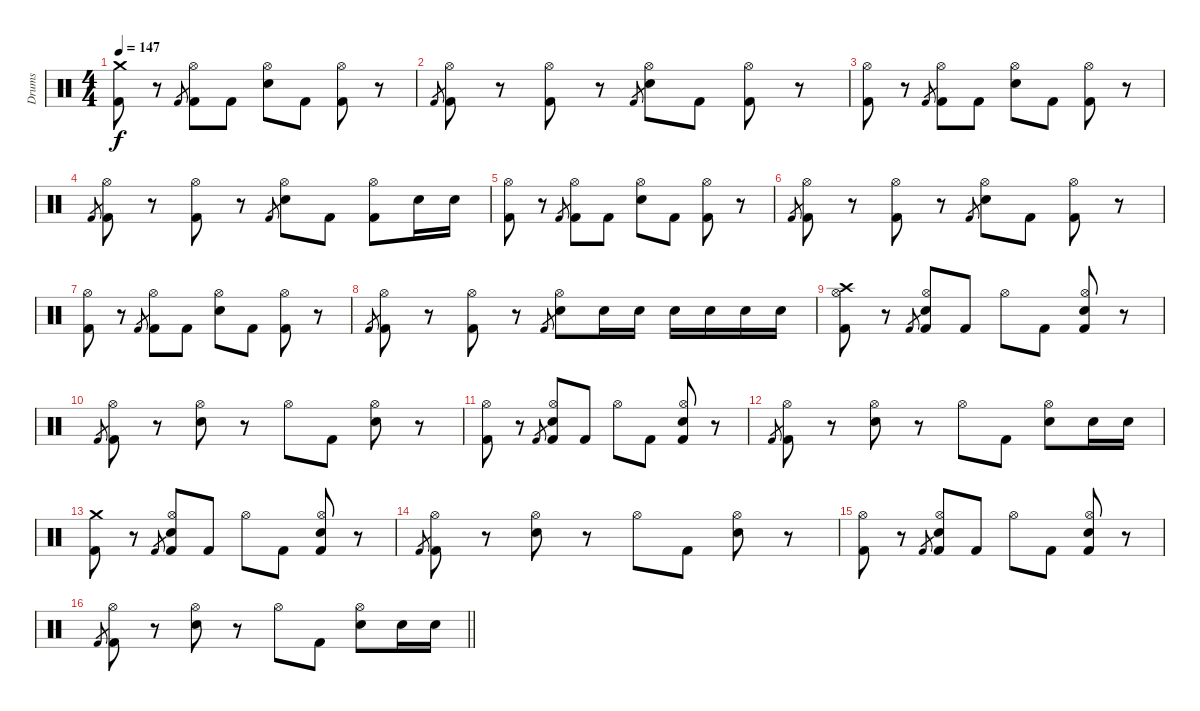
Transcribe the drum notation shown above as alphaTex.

\track ("Drums" "Drums") {instrument percussion}
\staff {score}
\articulation defaults
\ts (4 4)
\tempo 147
\clef neutral
\ks c
("Crash medium (hit)" "Kick (hit) 2").8{dy f} r.8 "Kick (hit) 2".8{gr} ("Hi-Hat (open)" "Kick (hit) 2").8 "Kick (hit) 2".8 ("Hi-Hat (open)" "Electric Snare (hit)").8 "Kick (hit) 2".8 ("Hi-Hat (open)" "Kick (hit) 2").8 r.8 |
"Kick (hit) 2".8{gr} ("Hi-Hat (open)" "Kick (hit) 2").8 r.8 ("Hi-Hat (open)" "Kick (hit) 2").8 r.8 "Kick (hit) 2".8{gr} ("Hi-Hat (open)" "Electric Snare (hit)").8 "Kick (hit) 2".8 ("Hi-Hat (open)" "Kick (hit) 2").8 r.8 |
("Hi-Hat (open)" "Kick (hit) 2").8 r.8 "Kick (hit) 2".8{gr} ("Hi-Hat (open)" "Kick (hit) 2").8 "Kick (hit) 2".8 ("Hi-Hat (open)" "Electric Snare (hit)").8 "Kick (hit) 2".8 ("Hi-Hat (open)" "Kick (hit) 2").8 r.8 |
"Kick (hit) 2".8{gr} ("Hi-Hat (open)" "Kick (hit) 2").8 r.8 ("Hi-Hat (open)" "Kick (hit) 2").8 r.8 "Kick (hit) 2".8{gr} ("Hi-Hat (open)" "Electric Snare (hit)").8 "Kick (hit) 2".8 ("Hi-Hat (open)" "Kick (hit) 2").8 "Electric Snare (hit)".16 "Electric Snare (hit)".16 |
("Hi-Hat (open)" "Kick (hit) 2").8 r.8 "Kick (hit) 2".8{gr} ("Hi-Hat (open)" "Kick (hit) 2").8 "Kick (hit) 2".8 ("Hi-Hat (open)" "Electric Snare (hit)").8 "Kick (hit) 2".8 ("Hi-Hat (open)" "Kick (hit) 2").8 r.8 |
"Kick (hit) 2".8{gr} ("Hi-Hat (open)" "Kick (hit) 2").8 r.8 ("Hi-Hat (open)" "Kick (hit) 2").8 r.8 "Kick (hit) 2".8{gr} ("Hi-Hat (open)" "Electric Snare (hit)").8 "Kick (hit) 2".8 ("Hi-Hat (open)" "Kick (hit) 2").8 r.8 |
("Hi-Hat (open)" "Kick (hit) 2").8 r.8 "Kick (hit) 2".8{gr} ("Hi-Hat (open)" "Kick (hit) 2").8 "Kick (hit) 2".8 ("Hi-Hat (open)" "Electric Snare (hit)").8 "Kick (hit) 2".8 ("Hi-Hat (open)" "Kick (hit) 2").8 r.8 |
"Kick (hit) 2".8{gr} ("Hi-Hat (open)" "Kick (hit) 2").8 r.8 ("Hi-Hat (open)" "Kick (hit) 2").8 r.8 "Kick (hit) 2".8{gr} ("Hi-Hat (open)" "Electric Snare (hit)").8 "Electric Snare (hit)".16 "Electric Snare (hit)".16 "Electric Snare (hit)".16 "Electric Snare (hit)".16 "Electric Snare (hit)".16 "Electric Snare (hit)".16 |
("Crash high (hit)" "Hi-Hat (open)" "Kick (hit) 2").8 r.8 "Kick (hit) 2".8{gr} ("Hi-Hat (open)" "Electric Snare (hit)" "Kick (hit) 2").8 "Kick (hit) 2".8 "Hi-Hat (open)".8 "Kick (hit) 2".8 ("Hi-Hat (open)" "Electric Snare (hit)" "Kick (hit) 2").8 r.8 |
"Kick (hit) 2".8{gr} ("Hi-Hat (open)" "Kick (hit) 2").8 r.8 ("Hi-Hat (open)" "Electric Snare (hit)").8 r.8 "Hi-Hat (open)".8 "Kick (hit) 2".8 ("Hi-Hat (open)" "Electric Snare (hit)").8 r.8 |
("Hi-Hat (open)" "Kick (hit) 2").8 r.8 "Kick (hit) 2".8{gr} ("Hi-Hat (open)" "Electric Snare (hit)" "Kick (hit) 2").8 "Kick (hit) 2".8 "Hi-Hat (open)".8 "Kick (hit) 2".8 ("Hi-Hat (open)" "Electric Snare (hit)" "Kick (hit) 2").8 r.8 |
"Kick (hit) 2".8{gr} ("Hi-Hat (open)" "Kick (hit) 2").8 r.8 ("Hi-Hat (open)" "Electric Snare (hit)").8 r.8 "Hi-Hat (open)".8 "Kick (hit) 2".8 ("Hi-Hat (open)" "Electric Snare (hit)").8 "Electric Snare (hit)".16 "Electric Snare (hit)".16 |
("Crash medium (hit)" "Kick (hit) 2").8 r.8 "Kick (hit) 2".8{gr} ("Hi-Hat (open)" "Electric Snare (hit)" "Kick (hit) 2").8 "Kick (hit) 2".8 "Hi-Hat (open)".8 "Kick (hit) 2".8 ("Hi-Hat (open)" "Electric Snare (hit)" "Kick (hit) 2").8 r.8 |
"Kick (hit) 2".8{gr} ("Hi-Hat (open)" "Kick (hit) 2").8 r.8 ("Hi-Hat (open)" "Electric Snare (hit)").8 r.8 "Hi-Hat (open)".8 "Kick (hit) 2".8 ("Hi-Hat (open)" "Electric Snare (hit)").8 r.8 |
("Hi-Hat (open)" "Kick (hit) 2").8 r.8 "Kick (hit) 2".8{gr} ("Hi-Hat (open)" "Electric Snare (hit)" "Kick (hit) 2").8 "Kick (hit) 2".8 "Hi-Hat (open)".8 "Kick (hit) 2".8 ("Hi-Hat (open)" "Electric Snare (hit)" "Kick (hit) 2").8 r.8 |
\barLineRight lightlight "Kick (hit) 2".8{gr}
("Hi-Hat (open)" "Kick (hit) 2").8 r.8 ("Hi-Hat (open)" "Electric Snare (hit)").8 r.8 "Hi-Hat (open)".8 "Kick (hit) 2".8 ("Hi-Hat (open)" "Electric Snare (hit)").8 "Electric Snare (hit)".16 "Electric Snare (hit)".16
